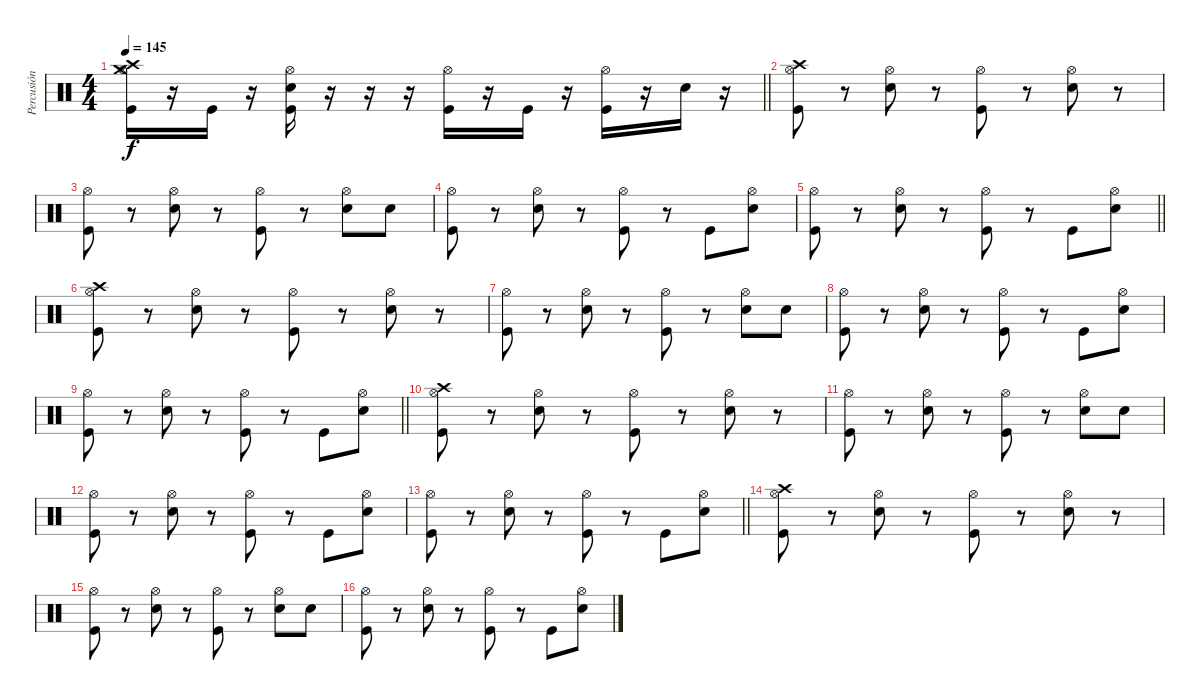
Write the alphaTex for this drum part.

\track ("Percusión" "Percusión") {instrument percussion}
\staff {score}
\articulation defaults
\ts (4 4)
\tempo 145
\clef neutral
\barLineRight lightlight
\ks c
("Hi-Hat (open)" "Crash high (hit)" "Kick (hit)" "Crash medium (hit)").16{dy f} r.16 "Kick (hit)".16 r.16 ("Hi-Hat (open)" "Kick (hit)" "Electric Snare (hit)").16 r.16 r.16 r.16 ("Hi-Hat (open)" "Kick (hit)").16 r.16 "Kick (hit)".16 r.16 ("Hi-Hat (open)" "Kick (hit)").16 r.16 "Electric Snare (hit)".16 r.16 |
\section ("" "")
("Crash high (hit)" "Hi-Hat (open)" "Kick (hit)").8 r.8 ("Hi-Hat (open)" "Electric Snare (hit)").8 r.8 ("Hi-Hat (open)" "Kick (hit)").8 r.8 ("Hi-Hat (open)" "Electric Snare (hit)").8 r.8 |
("Hi-Hat (open)" "Kick (hit)").8 r.8 ("Hi-Hat (open)" "Electric Snare (hit)").8 r.8 ("Hi-Hat (open)" "Kick (hit)").8 r.8 ("Hi-Hat (open)" "Electric Snare (hit)").8 "Electric Snare (hit)".8 |
("Hi-Hat (open)" "Kick (hit)").8 r.8 ("Hi-Hat (open)" "Electric Snare (hit)").8 r.8 ("Hi-Hat (open)" "Kick (hit)").8 r.8 "Kick (hit)".8 ("Hi-Hat (open)" "Electric Snare (hit)").8 |
\barLineRight lightlight
("Hi-Hat (open)" "Kick (hit)").8 r.8 ("Hi-Hat (open)" "Electric Snare (hit)").8 r.8 ("Hi-Hat (open)" "Kick (hit)").8 r.8 "Kick (hit)".8 ("Hi-Hat (open)" "Electric Snare (hit)").8 |
\section ("" "")
("Crash high (hit)" "Hi-Hat (open)" "Kick (hit)").8 r.8 ("Hi-Hat (open)" "Electric Snare (hit)").8 r.8 ("Hi-Hat (open)" "Kick (hit)").8 r.8 ("Hi-Hat (open)" "Electric Snare (hit)").8 r.8 |
("Hi-Hat (open)" "Kick (hit)").8 r.8 ("Hi-Hat (open)" "Electric Snare (hit)").8 r.8 ("Hi-Hat (open)" "Kick (hit)").8 r.8 ("Hi-Hat (open)" "Electric Snare (hit)").8 "Electric Snare (hit)".8 |
("Hi-Hat (open)" "Kick (hit)").8 r.8 ("Hi-Hat (open)" "Electric Snare (hit)").8 r.8 ("Hi-Hat (open)" "Kick (hit)").8 r.8 "Kick (hit)".8 ("Hi-Hat (open)" "Electric Snare (hit)").8 |
\barLineRight lightlight
("Hi-Hat (open)" "Kick (hit)").8 r.8 ("Hi-Hat (open)" "Electric Snare (hit)").8 r.8 ("Hi-Hat (open)" "Kick (hit)").8 r.8 "Kick (hit)".8 ("Hi-Hat (open)" "Electric Snare (hit)").8 |
\section ("" "")
("Crash high (hit)" "Hi-Hat (open)" "Kick (hit)").8 r.8 ("Hi-Hat (open)" "Electric Snare (hit)").8 r.8 ("Hi-Hat (open)" "Kick (hit)").8 r.8 ("Hi-Hat (open)" "Electric Snare (hit)").8 r.8 |
("Hi-Hat (open)" "Kick (hit)").8 r.8 ("Hi-Hat (open)" "Electric Snare (hit)").8 r.8 ("Hi-Hat (open)" "Kick (hit)").8 r.8 ("Hi-Hat (open)" "Electric Snare (hit)").8 "Electric Snare (hit)".8 |
("Hi-Hat (open)" "Kick (hit)").8 r.8 ("Hi-Hat (open)" "Electric Snare (hit)").8 r.8 ("Hi-Hat (open)" "Kick (hit)").8 r.8 "Kick (hit)".8 ("Hi-Hat (open)" "Electric Snare (hit)").8 |
\barLineRight lightlight
("Hi-Hat (open)" "Kick (hit)").8 r.8 ("Hi-Hat (open)" "Electric Snare (hit)").8 r.8 ("Hi-Hat (open)" "Kick (hit)").8 r.8 "Kick (hit)".8 ("Hi-Hat (open)" "Electric Snare (hit)").8 |
\section ("" "")
("Crash high (hit)" "Hi-Hat (open)" "Kick (hit)").8 r.8 ("Hi-Hat (open)" "Electric Snare (hit)").8 r.8 ("Hi-Hat (open)" "Kick (hit)").8 r.8 ("Hi-Hat (open)" "Electric Snare (hit)").8 r.8 |
("Hi-Hat (open)" "Kick (hit)").8 r.8 ("Hi-Hat (open)" "Electric Snare (hit)").8 r.8 ("Hi-Hat (open)" "Kick (hit)").8 r.8 ("Hi-Hat (open)" "Electric Snare (hit)").8 "Electric Snare (hit)".8 |
("Hi-Hat (open)" "Kick (hit)").8 r.8 ("Hi-Hat (open)" "Electric Snare (hit)").8 r.8 ("Hi-Hat (open)" "Kick (hit)").8 r.8 "Kick (hit)".8 ("Hi-Hat (open)" "Electric Snare (hit)").8
